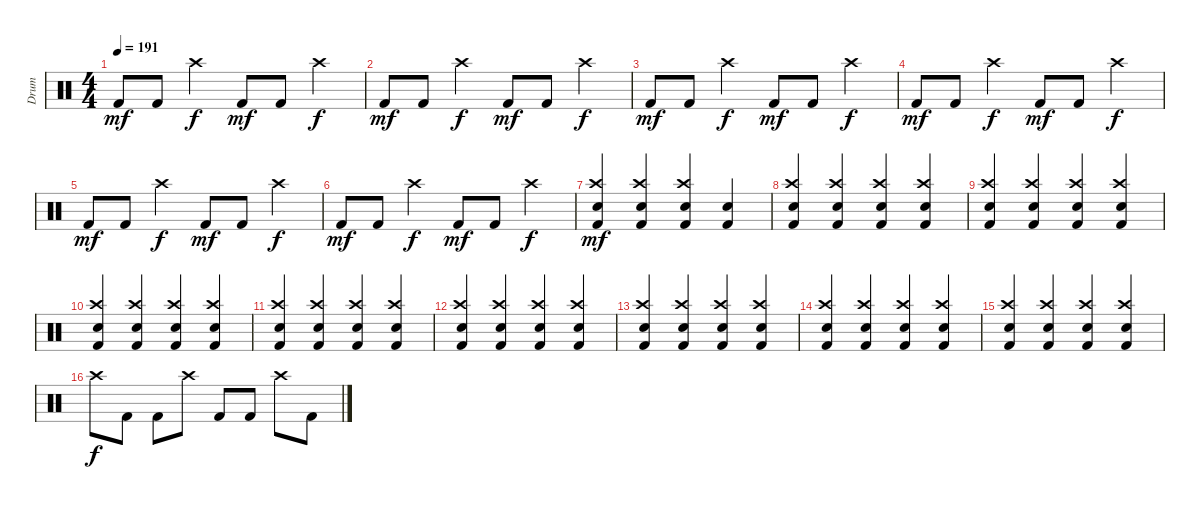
\track ("Drum" "Drum") {instrument percussion}
\staff {score}
\articulation defaults
\ts (4 4)
\tempo 191
\clef neutral
\ks c "Kick (hit) 2".8{dy mf} "Kick (hit) 2".8 "Crash high (hit)".4{dy f} "Kick (hit) 2".8{dy mf} "Kick (hit) 2".8 "Crash high (hit)".4{dy f}
|
"Kick (hit) 2".8{dy mf} "Kick (hit) 2".8 "Crash high (hit)".4{dy f} "Kick (hit) 2".8{dy mf} "Kick (hit) 2".8 "Crash high (hit)".4{dy f} |
"Kick (hit) 2".8{dy mf} "Kick (hit) 2".8 "Crash high (hit)".4{dy f} "Kick (hit) 2".8{dy mf} "Kick (hit) 2".8 "Crash high (hit)".4{dy f} |
"Kick (hit) 2".8{dy mf} "Kick (hit) 2".8 "Crash high (hit)".4{dy f} "Kick (hit) 2".8{dy mf} "Kick (hit) 2".8 "Crash high (hit)".4{dy f} |
"Kick (hit) 2".8{dy mf} "Kick (hit) 2".8 "Crash high (hit)".4{dy f} "Kick (hit) 2".8{dy mf} "Kick (hit) 2".8 "Crash high (hit)".4{dy f} |
"Kick (hit) 2".8{dy mf} "Kick (hit) 2".8 "Crash high (hit)".4{dy f} "Kick (hit) 2".8{dy mf} "Kick (hit) 2".8 "Crash high (hit)".4{dy f} |
("Kick (hit) 2" "Snare (hit) 2" "Crash high (hit)").4{dy mf} ("Kick (hit) 2" "Snare (hit) 2" "Crash high (hit)").4 ("Kick (hit) 2" "Snare (hit) 2" "Crash high (hit)").4 ("Kick (hit) 2" "Snare (hit) 2").4 |
("Kick (hit) 2" "Snare (hit) 2" "Crash high (hit)").4 ("Kick (hit) 2" "Snare (hit) 2" "Crash high (hit)").4 ("Kick (hit) 2" "Snare (hit) 2" "Crash high (hit)").4 ("Kick (hit) 2" "Snare (hit) 2" "Crash high (hit)").4 |
("Kick (hit) 2" "Snare (hit) 2" "Crash high (hit)").4 ("Kick (hit) 2" "Snare (hit) 2" "Crash high (hit)").4 ("Kick (hit) 2" "Snare (hit) 2" "Crash high (hit)").4 ("Kick (hit) 2" "Snare (hit) 2" "Crash high (hit)").4 |
("Kick (hit) 2" "Snare (hit) 2" "Crash high (hit)").4 ("Kick (hit) 2" "Snare (hit) 2" "Crash high (hit)").4 ("Kick (hit) 2" "Snare (hit) 2" "Crash high (hit)").4 ("Kick (hit) 2" "Snare (hit) 2" "Crash high (hit)").4 |
("Kick (hit) 2" "Snare (hit) 2" "Crash high (hit)").4 ("Kick (hit) 2" "Snare (hit) 2" "Crash high (hit)").4 ("Kick (hit) 2" "Snare (hit) 2" "Crash high (hit)").4 ("Kick (hit) 2" "Snare (hit) 2" "Crash high (hit)").4 |
("Kick (hit) 2" "Snare (hit) 2" "Crash high (hit)").4 ("Kick (hit) 2" "Snare (hit) 2" "Crash high (hit)").4 ("Kick (hit) 2" "Snare (hit) 2" "Crash high (hit)").4 ("Kick (hit) 2" "Snare (hit) 2" "Crash high (hit)").4 |
("Kick (hit) 2" "Snare (hit) 2" "Crash high (hit)").4 ("Kick (hit) 2" "Snare (hit) 2" "Crash high (hit)").4 ("Kick (hit) 2" "Snare (hit) 2" "Crash high (hit)").4 ("Kick (hit) 2" "Snare (hit) 2" "Crash high (hit)").4 |
("Kick (hit) 2" "Snare (hit) 2" "Crash high (hit)").4 ("Kick (hit) 2" "Snare (hit) 2" "Crash high (hit)").4 ("Kick (hit) 2" "Snare (hit) 2" "Crash high (hit)").4 ("Kick (hit) 2" "Snare (hit) 2" "Crash high (hit)").4 |
("Kick (hit) 2" "Snare (hit) 2" "Crash high (hit)").4 ("Kick (hit) 2" "Snare (hit) 2" "Crash high (hit)").4 ("Kick (hit) 2" "Snare (hit) 2" "Crash high (hit)").4 ("Kick (hit) 2" "Snare (hit) 2" "Crash high (hit)").4 |
"Crash high (hit)".8{dy f} "Kick (hit) 2".8 "Kick (hit) 2".8 "Crash high (hit)".8 "Kick (hit) 2".8 "Kick (hit) 2".8 "Crash high (hit)".8 "Kick (hit) 2".8
